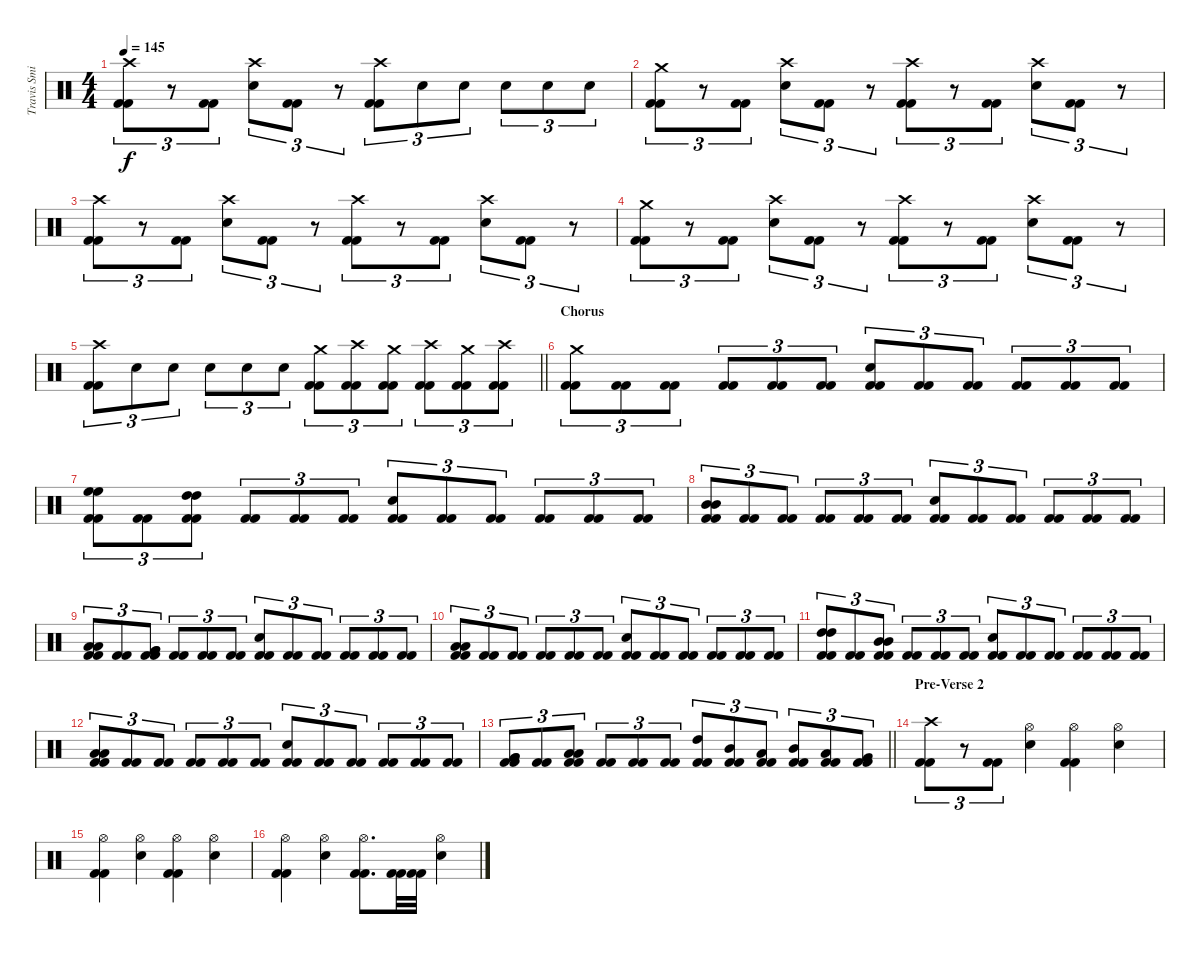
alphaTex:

\track ("Travis Smith" "Travis Smi") {instrument percussion}
\staff {score}
\articulation defaults
\ts (4 4)
\tempo 145
\clef neutral
\ks c
("Crash high (hit)" "Kick (hit) 2" "Kick (hit) 2").8{tu (3 2) dy f} r.8{tu (3 2)} ("Kick (hit) 2" "Kick (hit) 2").8{tu (3 2)} ("Crash high (hit)" "Electric Snare (hit)").8{tu (3 2)} ("Kick (hit) 2" "Kick (hit) 2").8{tu (3 2)} r.8{tu (3 2)} ("Crash high (hit)" "Kick (hit) 2" "Kick (hit) 2").8{tu (3 2)} "Electric Snare (hit)".8{tu (3 2)} "Electric Snare (hit)".8{tu (3 2)} "Electric Snare (hit)".8{tu (3 2)} "Electric Snare (hit)".8{tu (3 2)} "Electric Snare (hit)".8{tu (3 2)} |
("Crash medium (hit)" "Kick (hit) 2" "Kick (hit) 2").8{tu (3 2)} r.8{tu (3 2)} ("Kick (hit) 2" "Kick (hit) 2").8{tu (3 2)} ("Crash high (hit)" "Electric Snare (hit)").8{tu (3 2)} ("Kick (hit) 2" "Kick (hit) 2").8{tu (3 2)} r.8{tu (3 2)} ("Crash high (hit)" "Kick (hit) 2" "Kick (hit) 2").8{tu (3 2)} r.8{tu (3 2)} ("Kick (hit) 2" "Kick (hit) 2").8{tu (3 2)} ("Crash high (hit)" "Electric Snare (hit)").8{tu (3 2)} ("Kick (hit) 2" "Kick (hit) 2").8{tu (3 2)} r.8{tu (3 2)} |
("Crash high (hit)" "Kick (hit) 2" "Kick (hit) 2").8{tu (3 2)} r.8{tu (3 2)} ("Kick (hit) 2" "Kick (hit) 2").8{tu (3 2)} ("Crash high (hit)" "Electric Snare (hit)").8{tu (3 2)} ("Kick (hit) 2" "Kick (hit) 2").8{tu (3 2)} r.8{tu (3 2)} ("Crash high (hit)" "Kick (hit) 2" "Kick (hit) 2").8{tu (3 2)} r.8{tu (3 2)} ("Kick (hit) 2" "Kick (hit) 2").8{tu (3 2)} ("Crash high (hit)" "Electric Snare (hit)").8{tu (3 2)} ("Kick (hit) 2" "Kick (hit) 2").8{tu (3 2)} r.8{tu (3 2)} |
("Crash medium (hit)" "Kick (hit) 2" "Kick (hit) 2").8{tu (3 2)} r.8{tu (3 2)} ("Kick (hit) 2" "Kick (hit) 2").8{tu (3 2)} ("Crash high (hit)" "Electric Snare (hit)").8{tu (3 2)} ("Kick (hit) 2" "Kick (hit) 2").8{tu (3 2)} r.8{tu (3 2)} ("Crash high (hit)" "Kick (hit) 2" "Kick (hit) 2").8{tu (3 2)} r.8{tu (3 2)} ("Kick (hit) 2" "Kick (hit) 2").8{tu (3 2)} ("Crash high (hit)" "Electric Snare (hit)").8{tu (3 2)} ("Kick (hit) 2" "Kick (hit) 2").8{tu (3 2)} r.8{tu (3 2)} |
\barLineRight lightlight
("Crash high (hit)" "Kick (hit) 2" "Kick (hit) 2").8{tu (3 2)} "Electric Snare (hit)".8{tu (3 2)} "Electric Snare (hit)".8{tu (3 2)} "Electric Snare (hit)".8{tu (3 2)} "Electric Snare (hit)".8{tu (3 2)} "Electric Snare (hit)".8{tu (3 2)} ("Crash medium (hit)" "Kick (hit) 2" "Kick (hit) 2").8{tu (3 2)} ("Crash high (hit)" "Kick (hit) 2" "Kick (hit) 2").8{tu (3 2)} ("Crash medium (hit)" "Kick (hit) 2" "Kick (hit) 2").8{tu (3 2)} ("Crash high (hit)" "Kick (hit) 2" "Kick (hit) 2").8{tu (3 2)} ("Crash medium (hit)" "Kick (hit) 2" "Kick (hit) 2").8{tu (3 2)} ("Crash high (hit)" "Kick (hit) 2" "Kick (hit) 2").8{tu (3 2)} |
\section ("" "Chorus")
("Crash medium (hit)" "Kick (hit) 2" "Kick (hit) 2").8{tu (3 2)} ("Kick (hit) 2" "Kick (hit) 2").8{tu (3 2)} ("Kick (hit) 2" "Kick (hit) 2").8{tu (3 2)} ("Kick (hit) 2" "Kick (hit) 2").8{tu (3 2)} ("Kick (hit) 2" "Kick (hit) 2").8{tu (3 2)} ("Kick (hit) 2" "Kick (hit) 2").8{tu (3 2)} ("Electric Snare (hit)" "Kick (hit) 2" "Kick (hit) 2").8{tu (3 2)} ("Kick (hit) 2" "Kick (hit) 2").8{tu (3 2)} ("Kick (hit) 2" "Kick (hit) 2").8{tu (3 2)} ("Kick (hit) 2" "Kick (hit) 2").8{tu (3 2)} ("Kick (hit) 2" "Kick (hit) 2").8{tu (3 2)} ("Kick (hit) 2" "Kick (hit) 2").8{tu (3 2)} |
("High Floor Tom (hit)" "High Floor Tom (hit)" "Kick (hit) 2" "Kick (hit) 2").8{tu (3 2)} ("Kick (hit) 2" "Kick (hit) 2").8{tu (3 2)} ("High Tom (hit)" "High Tom (hit)" "Kick (hit) 2" "Kick (hit) 2").8{tu (3 2)} ("Kick (hit) 2" "Kick (hit) 2").8{tu (3 2)} ("Kick (hit) 2" "Kick (hit) 2").8{tu (3 2)} ("Kick (hit) 2" "Kick (hit) 2").8{tu (3 2)} ("Electric Snare (hit)" "Kick (hit) 2" "Kick (hit) 2").8{tu (3 2)} ("Kick (hit) 2" "Kick (hit) 2").8{tu (3 2)} ("Kick (hit) 2" "Kick (hit) 2").8{tu (3 2)} ("Kick (hit) 2" "Kick (hit) 2").8{tu (3 2)} ("Kick (hit) 2" "Kick (hit) 2").8{tu (3 2)} ("Kick (hit) 2" "Kick (hit) 2").8{tu (3 2)} |
("Mid Tom (hit)" "Mid Tom (hit)" "Kick (hit) 2" "Kick (hit) 2").8{tu (3 2)} ("Kick (hit) 2" "Kick (hit) 2").8{tu (3 2)} ("Kick (hit) 2" "Kick (hit) 2").8{tu (3 2)} ("Kick (hit) 2" "Kick (hit) 2").8{tu (3 2)} ("Kick (hit) 2" "Kick (hit) 2").8{tu (3 2)} ("Kick (hit) 2" "Kick (hit) 2").8{tu (3 2)} ("Electric Snare (hit)" "Kick (hit) 2" "Kick (hit) 2").8{tu (3 2)} ("Kick (hit) 2" "Kick (hit) 2").8{tu (3 2)} ("Kick (hit) 2" "Kick (hit) 2").8{tu (3 2)} ("Kick (hit) 2" "Kick (hit) 2").8{tu (3 2)} ("Kick (hit) 2" "Kick (hit) 2").8{tu (3 2)} ("Kick (hit) 2" "Kick (hit) 2").8{tu (3 2)} |
("Low Tom (hit)" "Low Tom (hit)" "Kick (hit) 2" "Kick (hit) 2").8{tu (3 2)} ("Kick (hit) 2" "Kick (hit) 2").8{tu (3 2)} ("Very Low Tom (hit)" "Very Low Tom (hit)" "Kick (hit) 2" "Kick (hit) 2").8{tu (3 2)} ("Kick (hit) 2" "Kick (hit) 2").8{tu (3 2)} ("Kick (hit) 2" "Kick (hit) 2").8{tu (3 2)} ("Kick (hit) 2" "Kick (hit) 2").8{tu (3 2)} ("Electric Snare (hit)" "Kick (hit) 2" "Kick (hit) 2").8{tu (3 2)} ("Kick (hit) 2" "Kick (hit) 2").8{tu (3 2)} ("Kick (hit) 2" "Kick (hit) 2").8{tu (3 2)} ("Kick (hit) 2" "Kick (hit) 2").8{tu (3 2)} ("Kick (hit) 2" "Kick (hit) 2").8{tu (3 2)} ("Kick (hit) 2" "Kick (hit) 2").8{tu (3 2)} |
("Low Floor Tom (hit)" "Low Floor Tom (hit)" "Kick (hit) 2" "Kick (hit) 2").8{tu (3 2)} ("Kick (hit) 2" "Kick (hit) 2").8{tu (3 2)} ("Kick (hit) 2" "Kick (hit) 2").8{tu (3 2)} ("Kick (hit) 2" "Kick (hit) 2").8{tu (3 2)} ("Kick (hit) 2" "Kick (hit) 2").8{tu (3 2)} ("Kick (hit) 2" "Kick (hit) 2").8{tu (3 2)} ("Electric Snare (hit)" "Kick (hit) 2" "Kick (hit) 2").8{tu (3 2)} ("Kick (hit) 2" "Kick (hit) 2").8{tu (3 2)} ("Kick (hit) 2" "Kick (hit) 2").8{tu (3 2)} ("Kick (hit) 2" "Kick (hit) 2").8{tu (3 2)} ("Kick (hit) 2" "Kick (hit) 2").8{tu (3 2)} ("Kick (hit) 2" "Kick (hit) 2").8{tu (3 2)} |
("High Tom (hit)" "High Tom (hit)" "Kick (hit) 2" "Kick (hit) 2").8{tu (3 2)} ("Kick (hit) 2" "Kick (hit) 2").8{tu (3 2)} ("Mid Tom (hit)" "Mid Tom (hit)" "Kick (hit) 2" "Kick (hit) 2").8{tu (3 2)} ("Kick (hit) 2" "Kick (hit) 2").8{tu (3 2)} ("Kick (hit) 2" "Kick (hit) 2").8{tu (3 2)} ("Kick (hit) 2" "Kick (hit) 2").8{tu (3 2)} ("Electric Snare (hit)" "Kick (hit) 2" "Kick (hit) 2").8{tu (3 2)} ("Kick (hit) 2" "Kick (hit) 2").8{tu (3 2)} ("Kick (hit) 2" "Kick (hit) 2").8{tu (3 2)} ("Kick (hit) 2" "Kick (hit) 2").8{tu (3 2)} ("Kick (hit) 2" "Kick (hit) 2").8{tu (3 2)} ("Kick (hit) 2" "Kick (hit) 2").8{tu (3 2)} |
("Low Tom (hit)" "Low Tom (hit)" "Kick (hit) 2" "Kick (hit) 2").8{tu (3 2)} ("Kick (hit) 2" "Kick (hit) 2").8{tu (3 2)} ("Kick (hit) 2" "Kick (hit) 2").8{tu (3 2)} ("Kick (hit) 2" "Kick (hit) 2").8{tu (3 2)} ("Kick (hit) 2" "Kick (hit) 2").8{tu (3 2)} ("Kick (hit) 2" "Kick (hit) 2").8{tu (3 2)} ("Electric Snare (hit)" "Kick (hit) 2" "Kick (hit) 2").8{tu (3 2)} ("Kick (hit) 2" "Kick (hit) 2").8{tu (3 2)} ("Kick (hit) 2" "Kick (hit) 2").8{tu (3 2)} ("Kick (hit) 2" "Kick (hit) 2").8{tu (3 2)} ("Kick (hit) 2" "Kick (hit) 2").8{tu (3 2)} ("Kick (hit) 2" "Kick (hit) 2").8{tu (3 2)} |
\barLineRight lightlight
("Very Low Tom (hit)" "Very Low Tom (hit)" "Kick (hit) 2" "Kick (hit) 2").8{tu (3 2)} ("Kick (hit) 2" "Kick (hit) 2").8{tu (3 2)} ("Low Floor Tom (hit)" "Low Floor Tom (hit)" "Kick (hit) 2" "Kick (hit) 2").8{tu (3 2)} ("Kick (hit) 2" "Kick (hit) 2").8{tu (3 2)} ("Kick (hit) 2" "Kick (hit) 2").8{tu (3 2)} ("Kick (hit) 2" "Kick (hit) 2").8{tu (3 2)} ("High Tom (hit)" "Kick (hit) 2" "Kick (hit) 2").8{tu (3 2)} ("Mid Tom (hit)" "Kick (hit) 2" "Kick (hit) 2").8{tu (3 2)} ("Low Tom (hit)" "Kick (hit) 2" "Kick (hit) 2").8{tu (3 2)} ("Mid Tom (hit)" "Kick (hit) 2" "Kick (hit) 2").8{tu (3 2)} ("Low Tom (hit)" "Kick (hit) 2" "Kick (hit) 2").8{tu (3 2)} ("Very Low Tom (hit)" "Kick (hit) 2" "Kick (hit) 2").8{tu (3 2)} |
\section ("" "Pre-Verse 2")
("Crash high (hit)" "Kick (hit) 2" "Kick (hit) 2").8{tu (3 2)} r.8{tu (3 2)} ("Kick (hit) 2" "Kick (hit) 2").8{tu (3 2)} ("Hi-Hat (open)" "Electric Snare (hit)").4 ("Hi-Hat (open)" "Kick (hit) 2" "Kick (hit) 2").4 ("Hi-Hat (open)" "Electric Snare (hit)").4 |
("Hi-Hat (open)" "Kick (hit) 2" "Kick (hit) 2").4 ("Hi-Hat (open)" "Electric Snare (hit)").4 ("Hi-Hat (open)" "Kick (hit) 2" "Kick (hit) 2").4 ("Hi-Hat (open)" "Electric Snare (hit)").4 |
("Hi-Hat (open)" "Kick (hit) 2" "Kick (hit) 2").4 ("Hi-Hat (open)" "Electric Snare (hit)").4 ("Hi-Hat (open)" "Kick (hit) 2" "Kick (hit) 2").8{d} ("Kick (hit) 2" "Kick (hit) 2").32 ("Kick (hit) 2" "Kick (hit) 2").32 ("Hi-Hat (open)" "Electric Snare (hit)").4
